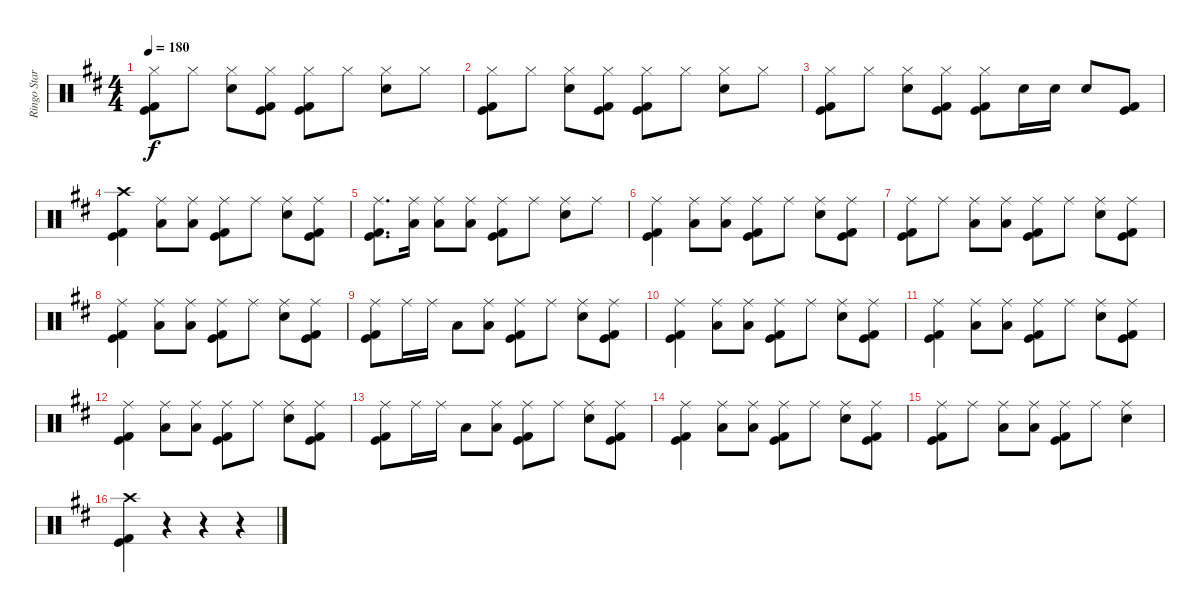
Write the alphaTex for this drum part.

\track ("Ringo Starr" "Ringo Star") {instrument percussion}
\staff {score}
\articulation defaults
\ts (4 4)
\tempo 180
\clef neutral
\ks d
("Hi-Hat (closed)" "Kick (hit) 2" "Kick (hit)").8{dy f} "Hi-Hat (closed)".8 ("Hi-Hat (closed)" "Electric Snare (hit)").8 ("Hi-Hat (closed)" "Kick (hit) 2" "Kick (hit)").8 ("Hi-Hat (closed)" "Kick (hit) 2" "Kick (hit)").8 "Hi-Hat (closed)".8 ("Hi-Hat (closed)" "Electric Snare (hit)").8 "Hi-Hat (closed)".8 |
("Hi-Hat (closed)" "Kick (hit) 2" "Kick (hit)").8 "Hi-Hat (closed)".8 ("Hi-Hat (closed)" "Electric Snare (hit)").8 ("Hi-Hat (closed)" "Kick (hit) 2" "Kick (hit)").8 ("Hi-Hat (closed)" "Kick (hit) 2" "Kick (hit)").8 "Hi-Hat (closed)".8 ("Hi-Hat (closed)" "Electric Snare (hit)").8 "Hi-Hat (closed)".8 |
("Hi-Hat (closed)" "Kick (hit) 2" "Kick (hit)").8 "Hi-Hat (closed)".8 ("Hi-Hat (closed)" "Electric Snare (hit)").8 ("Hi-Hat (closed)" "Kick (hit) 2" "Kick (hit)").8 ("Hi-Hat (closed)" "Kick (hit) 2" "Kick (hit)").8 "Electric Snare (hit)".16 "Electric Snare (hit)".16 "Electric Snare (hit)".8 ("Kick (hit) 2" "Kick (hit)").8 |
("Crash high (hit)" "Kick (hit) 2" "Kick (hit)").4 ("Ride (middle)" "Low Tom (hit)").8 ("Ride (middle)" "Low Tom (hit)").8 ("Ride (middle)" "Kick (hit) 2" "Kick (hit)").8 "Ride (middle)".8 ("Ride (middle)" "Electric Snare (hit)").8 ("Ride (middle)" "Kick (hit) 2" "Kick (hit)").8 |
("Ride (middle)" "Kick (hit) 2" "Kick (hit)").8{d} ("Ride (middle)" "Low Tom (hit)").16 ("Ride (middle)" "Low Tom (hit)").8 ("Ride (middle)" "Low Tom (hit)").8 ("Ride (middle)" "Kick (hit) 2" "Kick (hit)").8 "Ride (middle)".8 ("Ride (middle)" "Electric Snare (hit)").8 "Ride (middle)".8 |
("Ride (middle)" "Kick (hit) 2" "Kick (hit)").4 ("Ride (middle)" "Low Tom (hit)").8 ("Ride (middle)" "Low Tom (hit)").8 ("Ride (middle)" "Kick (hit) 2" "Kick (hit)").8 "Ride (middle)".8 ("Ride (middle)" "Electric Snare (hit)").8 ("Ride (middle)" "Kick (hit) 2" "Kick (hit)").8 |
("Ride (middle)" "Kick (hit) 2" "Kick (hit)").8 "Ride (middle)".8 ("Ride (middle)" "Low Tom (hit)").8 ("Ride (middle)" "Low Tom (hit)").8 ("Ride (middle)" "Kick (hit) 2" "Kick (hit)").8 "Ride (middle)".8 ("Ride (middle)" "Electric Snare (hit)").8 ("Ride (middle)" "Kick (hit) 2" "Kick (hit)").8 |
("Ride (middle)" "Kick (hit) 2" "Kick (hit)").4 ("Ride (middle)" "Low Tom (hit)").8 ("Ride (middle)" "Low Tom (hit)").8 ("Ride (middle)" "Kick (hit) 2" "Kick (hit)").8 "Ride (middle)".8 ("Ride (middle)" "Electric Snare (hit)").8 ("Ride (middle)" "Kick (hit) 2" "Kick (hit)").8 |
("Ride (middle)" "Kick (hit) 2" "Kick (hit)").8 "Ride (middle)".16 "Ride (middle)".16 "Low Tom (hit)".8 ("Ride (middle)" "Low Tom (hit)").8 ("Ride (middle)" "Kick (hit) 2" "Kick (hit)").8 "Ride (middle)".8 ("Ride (middle)" "Electric Snare (hit)").8 ("Ride (middle)" "Kick (hit) 2" "Kick (hit)").8 |
("Ride (middle)" "Kick (hit) 2" "Kick (hit)").4 ("Ride (middle)" "Low Tom (hit)").8 ("Ride (middle)" "Low Tom (hit)").8 ("Ride (middle)" "Kick (hit) 2" "Kick (hit)").8 "Ride (middle)".8 ("Ride (middle)" "Electric Snare (hit)").8 ("Ride (middle)" "Kick (hit) 2" "Kick (hit)").8 |
("Ride (middle)" "Kick (hit) 2" "Kick (hit)").4 ("Ride (middle)" "Low Tom (hit)").8 ("Ride (middle)" "Low Tom (hit)").8 ("Ride (middle)" "Kick (hit) 2" "Kick (hit)").8 "Ride (middle)".8 ("Ride (middle)" "Electric Snare (hit)").8 ("Ride (middle)" "Kick (hit) 2" "Kick (hit)").8 |
("Ride (middle)" "Kick (hit) 2" "Kick (hit)").4 ("Ride (middle)" "Low Tom (hit)").8 ("Ride (middle)" "Low Tom (hit)").8 ("Ride (middle)" "Kick (hit) 2" "Kick (hit)").8 "Ride (middle)".8 ("Ride (middle)" "Electric Snare (hit)").8 ("Ride (middle)" "Kick (hit) 2" "Kick (hit)").8 |
("Ride (middle)" "Kick (hit) 2" "Kick (hit)").8 "Ride (middle)".16 "Ride (middle)".16 "Low Tom (hit)".8 ("Ride (middle)" "Low Tom (hit)").8 ("Ride (middle)" "Kick (hit) 2" "Kick (hit)").8 "Ride (middle)".8 ("Ride (middle)" "Electric Snare (hit)").8 ("Ride (middle)" "Kick (hit) 2" "Kick (hit)").8 |
("Ride (middle)" "Kick (hit) 2" "Kick (hit)").4 ("Ride (middle)" "Low Tom (hit)").8 ("Ride (middle)" "Low Tom (hit)").8 ("Ride (middle)" "Kick (hit) 2" "Kick (hit)").8 "Ride (middle)".8 ("Ride (middle)" "Electric Snare (hit)").8 ("Ride (middle)" "Kick (hit) 2" "Kick (hit)").8 |
("Ride (middle)" "Kick (hit) 2" "Kick (hit)").8 "Ride (middle)".8 ("Ride (middle)" "Low Tom (hit)").8 ("Ride (middle)" "Low Tom (hit)").8 ("Ride (middle)" "Kick (hit) 2" "Kick (hit)").8 "Ride (middle)".8 ("Ride (middle)" "Electric Snare (hit)").4 |
("Crash high (hit)" "Kick (hit) 2" "Kick (hit)").4 r.4 r.4 r.4
